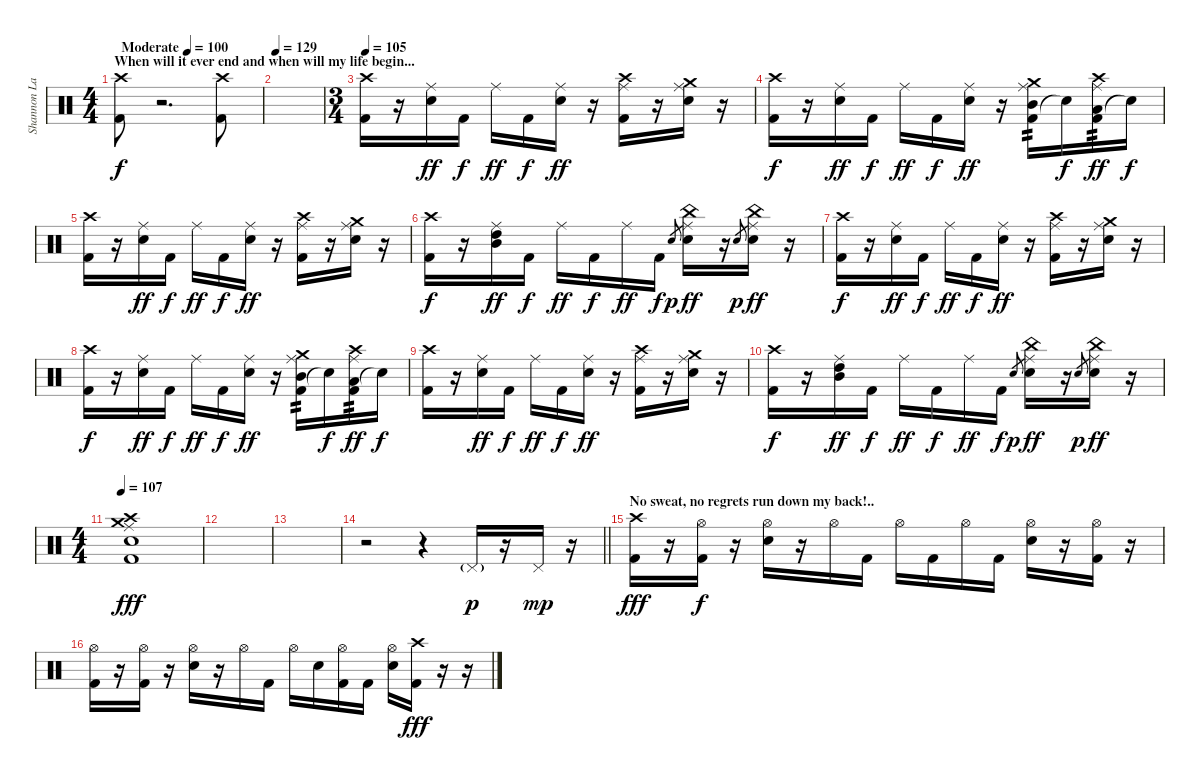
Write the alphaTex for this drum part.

\track ("Shannon Larkin" "Shannon La") {instrument percussion}
\staff {score}
\articulation defaults
\ts (4 4)
\section ("" "When will it ever end and when will my life begin...")
\tempo (100 "Moderate")
\clef neutral
\ks c
("Crash high (hit)" "Kick (hit) 2").8{dy f} r.2{d} ("Crash high (hit)" "Kick (hit) 2").8 |
\tempo 129
|
\ts (3 4)
\tempo 105
("Kick (hit) 2" "Crash high (hit)").16 r.16 ("Electric Snare (hit)" "Ride (middle)").16{dy ff} "Kick (hit) 2".16{dy f} "Ride (middle)".16{dy ff} "Kick (hit) 2".16{dy f} ("Electric Snare (hit)" "Ride (middle)").16{dy ff} r.16 ("Kick (hit) 2" "Crash high (hit)" "Ride (middle)").16 r.16 ("Electric Snare (hit)" "Crash medium (hit)" "Ride (middle)").16 r.16 |
("Kick (hit) 2" "Crash high (hit)").16{dy f} r.16 ("Electric Snare (hit)" "Ride (middle)").16{dy ff} "Kick (hit) 2".16{dy f} "Ride (middle)".16{dy ff} "Kick (hit) 2".16{dy f} ("Electric Snare (hit)" "Ride (middle)").16{dy ff} r.16 ("Kick (hit) 2" "Mid Tom (hit)" "Crash medium (hit)" "Ride (middle)").16{tp 2} "Snare (hit)"{t}.16{dy f} ("Kick (hit) 2" "Low Tom (hit)" "Crash high (hit)" "Ride (middle)").16{tp 2 dy ff} "Snare (hit)"{t}.16{dy f} |
("Kick (hit) 2" "Crash high (hit)").16 r.16 ("Electric Snare (hit)" "Ride (middle)").16{dy ff} "Kick (hit) 2".16{dy f} "Ride (middle)".16{dy ff} "Kick (hit) 2".16{dy f} ("Electric Snare (hit)" "Ride (middle)").16{dy ff} r.16 ("Kick (hit) 2" "Crash high (hit)" "Ride (middle)").16 r.16 ("Electric Snare (hit)" "Crash medium (hit)" "Ride (middle)").16 r.16 |
("Kick (hit) 2" "Crash high (hit)").16{dy f} r.16 ("High Tom (hit)" "Mid Tom (hit)" "Ride (middle)").16{dy ff} "Kick (hit) 2".16{dy f} "Ride (middle)".16{dy ff} "Kick (hit) 2".16{dy f} "Ride (middle)".16{dy ff} "Kick (hit) 2".16{dy f} "Electric Snare (hit)".8{gr dy p} ("Electric Snare (hit)" "China (hit)" "Ride (middle)").16{dy ff} r.16 "Electric Snare (hit)".8{gr dy p} ("Electric Snare (hit)" "China (hit)" "Ride (middle)").16{dy ff} r.16 |
("Kick (hit) 2" "Crash high (hit)").16{dy f} r.16 ("Electric Snare (hit)" "Ride (middle)").16{dy ff} "Kick (hit) 2".16{dy f} "Ride (middle)".16{dy ff} "Kick (hit) 2".16{dy f} ("Electric Snare (hit)" "Ride (middle)").16{dy ff} r.16 ("Kick (hit) 2" "Crash high (hit)" "Ride (middle)").16 r.16 ("Electric Snare (hit)" "Crash medium (hit)" "Ride (middle)").16 r.16 |
("Kick (hit) 2" "Crash high (hit)").16{dy f} r.16 ("Electric Snare (hit)" "Ride (middle)").16{dy ff} "Kick (hit) 2".16{dy f} "Ride (middle)".16{dy ff} "Kick (hit) 2".16{dy f} ("Electric Snare (hit)" "Ride (middle)").16{dy ff} r.16 ("Kick (hit) 2" "Mid Tom (hit)" "Crash medium (hit)" "Ride (middle)").16{tp 2} "Snare (hit)"{t}.16{dy f} ("Kick (hit) 2" "Low Tom (hit)" "Crash high (hit)" "Ride (middle)").16{tp 2 dy ff} "Snare (hit)"{t}.16{dy f} |
("Kick (hit) 2" "Crash high (hit)").16 r.16 ("Electric Snare (hit)" "Ride (middle)").16{dy ff} "Kick (hit) 2".16{dy f} "Ride (middle)".16{dy ff} "Kick (hit) 2".16{dy f} ("Electric Snare (hit)" "Ride (middle)").16{dy ff} r.16 ("Kick (hit) 2" "Crash high (hit)" "Ride (middle)").16 r.16 ("Electric Snare (hit)" "Crash medium (hit)" "Ride (middle)").16 r.16 |
("Kick (hit) 2" "Crash high (hit)").16{dy f} r.16 ("High Tom (hit)" "Mid Tom (hit)" "Ride (middle)").16{dy ff} "Kick (hit) 2".16{dy f} "Ride (middle)".16{dy ff} "Kick (hit) 2".16{dy f} "Ride (middle)".16{dy ff} "Kick (hit) 2".16{dy f} "Electric Snare (hit)".8{gr dy p} ("Electric Snare (hit)" "China (hit)" "Ride (middle)").16{dy ff} r.16 "Electric Snare (hit)".8{gr dy p} ("Electric Snare (hit)" "China (hit)" "Ride (middle)").16{dy ff} r.16 |
\ts (4 4)
\tempo 107
("Kick (hit) 2" "Ride (middle)" "Crash medium (hit)" "Crash high (hit)" "Electric Snare (hit)").1{dy fff} |
|
|
\barLineRight lightlight
r.2 r.4 "Pedal Hi-Hat (hit)"{g}.16{dy p} r.16 "Pedal Hi-Hat (hit)".16{dy mp} r.16 |
\section ("" "No sweat, no regrets run down my back!..")
("Crash high (hit)" "Kick (hit) 2").16{dy fff} r.16 ("Hi-Hat (open)" "Kick (hit) 2").16{dy f} r.16 ("Hi-Hat (open)" "Electric Snare (hit)").16 r.16 "Hi-Hat (open)".16 "Kick (hit) 2".16 "Hi-Hat (open)".16 "Kick (hit) 2".16 "Hi-Hat (open)".16 "Kick (hit) 2".16 ("Hi-Hat (open)" "Electric Snare (hit)").16 r.16 ("Hi-Hat (open)" "Kick (hit) 2").16 r.16 |
("Hi-Hat (open)" "Kick (hit) 2").16 r.16 ("Hi-Hat (open)" "Kick (hit) 2").16 r.16 ("Hi-Hat (open)" "Electric Snare (hit)").16 r.16 "Hi-Hat (open)".16 "Kick (hit) 2".16 "Hi-Hat (open)".16 "Electric Snare (hit)".16 ("Hi-Hat (open)" "Kick (hit) 2").16 "Kick (hit) 2".16 ("Hi-Hat (open)" "Electric Snare (hit)").16 ("Crash high (hit)" "Kick (hit) 2").16{dy fff} r.16 r.16
